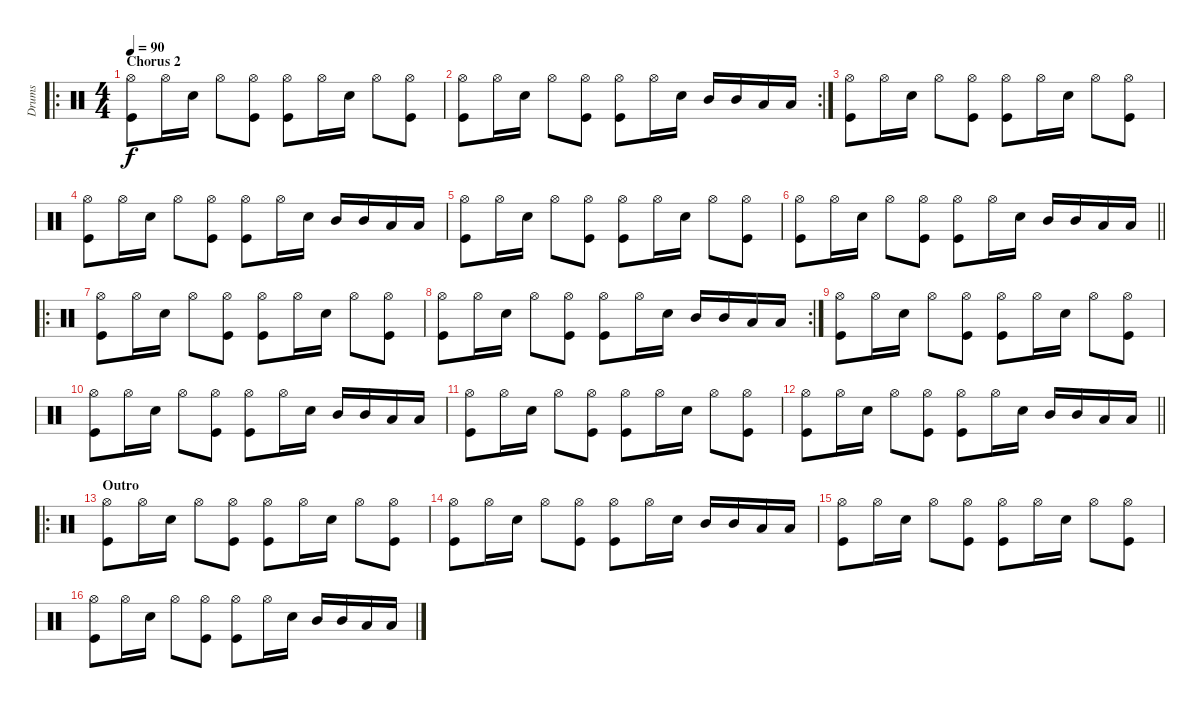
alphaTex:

\track ("Drums" "Drums") {instrument percussion}
\staff {score}
\articulation defaults
\ro
\ts (4 4)
\section ("" "Chorus 2")
\tempo 90
\clef neutral
\ks c
("Hi-Hat (open)" "Kick (hit)").8{dy f} "Hi-Hat (open)".16 "Snare (hit) 2".16 "Hi-Hat (open)".8 ("Hi-Hat (open)" "Kick (hit)").8 ("Hi-Hat (open)" "Kick (hit)").8 "Hi-Hat (open)".16 "Snare (hit) 2".16 "Hi-Hat (open)".8 ("Hi-Hat (open)" "Kick (hit)").8 |
\rc 2
("Hi-Hat (open)" "Kick (hit)").8 "Hi-Hat (open)".16 "Snare (hit) 2".16 "Hi-Hat (open)".8 ("Hi-Hat (open)" "Kick (hit)").8 ("Hi-Hat (open)" "Kick (hit)").8 "Hi-Hat (open)".16 "Snare (hit) 2".16 "Mid Tom (hit)".16 "Mid Tom (hit)".16 "Low Tom (hit)".16 "Low Tom (hit)".16 |
("Hi-Hat (open)" "Kick (hit)").8 "Hi-Hat (open)".16 "Snare (hit) 2".16 "Hi-Hat (open)".8 ("Hi-Hat (open)" "Kick (hit)").8 ("Hi-Hat (open)" "Kick (hit)").8 "Hi-Hat (open)".16 "Snare (hit) 2".16 "Hi-Hat (open)".8 ("Hi-Hat (open)" "Kick (hit)").8 |
("Hi-Hat (open)" "Kick (hit)").8 "Hi-Hat (open)".16 "Snare (hit) 2".16 "Hi-Hat (open)".8 ("Hi-Hat (open)" "Kick (hit)").8 ("Hi-Hat (open)" "Kick (hit)").8 "Hi-Hat (open)".16 "Snare (hit) 2".16 "Mid Tom (hit)".16 "Mid Tom (hit)".16 "Low Tom (hit)".16 "Low Tom (hit)".16 |
("Hi-Hat (open)" "Kick (hit)").8 "Hi-Hat (open)".16 "Snare (hit) 2".16 "Hi-Hat (open)".8 ("Hi-Hat (open)" "Kick (hit)").8 ("Hi-Hat (open)" "Kick (hit)").8 "Hi-Hat (open)".16 "Snare (hit) 2".16 "Hi-Hat (open)".8 ("Hi-Hat (open)" "Kick (hit)").8 |
\barLineRight lightlight
("Hi-Hat (open)" "Kick (hit)").8 "Hi-Hat (open)".16 "Snare (hit) 2".16 "Hi-Hat (open)".8 ("Hi-Hat (open)" "Kick (hit)").8 ("Hi-Hat (open)" "Kick (hit)").8 "Hi-Hat (open)".16 "Snare (hit) 2".16 "Mid Tom (hit)".16 "Mid Tom (hit)".16 "Low Tom (hit)".16 "Low Tom (hit)".16 |
\ro
("Hi-Hat (open)" "Kick (hit)").8 "Hi-Hat (open)".16 "Snare (hit) 2".16 "Hi-Hat (open)".8 ("Hi-Hat (open)" "Kick (hit)").8 ("Hi-Hat (open)" "Kick (hit)").8 "Hi-Hat (open)".16 "Snare (hit) 2".16 "Hi-Hat (open)".8 ("Hi-Hat (open)" "Kick (hit)").8 |
\rc 2
("Hi-Hat (open)" "Kick (hit)").8 "Hi-Hat (open)".16 "Snare (hit) 2".16 "Hi-Hat (open)".8 ("Hi-Hat (open)" "Kick (hit)").8 ("Hi-Hat (open)" "Kick (hit)").8 "Hi-Hat (open)".16 "Snare (hit) 2".16 "Mid Tom (hit)".16 "Mid Tom (hit)".16 "Low Tom (hit)".16 "Low Tom (hit)".16 |
("Hi-Hat (open)" "Kick (hit)").8 "Hi-Hat (open)".16 "Snare (hit) 2".16 "Hi-Hat (open)".8 ("Hi-Hat (open)" "Kick (hit)").8 ("Hi-Hat (open)" "Kick (hit)").8 "Hi-Hat (open)".16 "Snare (hit) 2".16 "Hi-Hat (open)".8 ("Hi-Hat (open)" "Kick (hit)").8 |
("Hi-Hat (open)" "Kick (hit)").8 "Hi-Hat (open)".16 "Snare (hit) 2".16 "Hi-Hat (open)".8 ("Hi-Hat (open)" "Kick (hit)").8 ("Hi-Hat (open)" "Kick (hit)").8 "Hi-Hat (open)".16 "Snare (hit) 2".16 "Mid Tom (hit)".16 "Mid Tom (hit)".16 "Low Tom (hit)".16 "Low Tom (hit)".16 |
("Hi-Hat (open)" "Kick (hit)").8 "Hi-Hat (open)".16 "Snare (hit) 2".16 "Hi-Hat (open)".8 ("Hi-Hat (open)" "Kick (hit)").8 ("Hi-Hat (open)" "Kick (hit)").8 "Hi-Hat (open)".16 "Snare (hit) 2".16 "Hi-Hat (open)".8 ("Hi-Hat (open)" "Kick (hit)").8 |
\barLineRight lightlight
("Hi-Hat (open)" "Kick (hit)").8 "Hi-Hat (open)".16 "Snare (hit) 2".16 "Hi-Hat (open)".8 ("Hi-Hat (open)" "Kick (hit)").8 ("Hi-Hat (open)" "Kick (hit)").8 "Hi-Hat (open)".16 "Snare (hit) 2".16 "Mid Tom (hit)".16 "Mid Tom (hit)".16 "Low Tom (hit)".16 "Low Tom (hit)".16 |
\ro
\section ("" "Outro")
("Hi-Hat (open)" "Kick (hit)").8 "Hi-Hat (open)".16 "Snare (hit) 2".16 "Hi-Hat (open)".8 ("Hi-Hat (open)" "Kick (hit)").8 ("Hi-Hat (open)" "Kick (hit)").8 "Hi-Hat (open)".16 "Snare (hit) 2".16 "Hi-Hat (open)".8 ("Hi-Hat (open)" "Kick (hit)").8 |
("Hi-Hat (open)" "Kick (hit)").8 "Hi-Hat (open)".16 "Snare (hit) 2".16 "Hi-Hat (open)".8 ("Hi-Hat (open)" "Kick (hit)").8 ("Hi-Hat (open)" "Kick (hit)").8 "Hi-Hat (open)".16 "Snare (hit) 2".16 "Mid Tom (hit)".16 "Mid Tom (hit)".16 "Low Tom (hit)".16 "Low Tom (hit)".16 |
("Hi-Hat (open)" "Kick (hit)").8 "Hi-Hat (open)".16 "Snare (hit) 2".16 "Hi-Hat (open)".8 ("Hi-Hat (open)" "Kick (hit)").8 ("Hi-Hat (open)" "Kick (hit)").8 "Hi-Hat (open)".16 "Snare (hit) 2".16 "Hi-Hat (open)".8 ("Hi-Hat (open)" "Kick (hit)").8 |
("Hi-Hat (open)" "Kick (hit)").8 "Hi-Hat (open)".16 "Snare (hit) 2".16 "Hi-Hat (open)".8 ("Hi-Hat (open)" "Kick (hit)").8 ("Hi-Hat (open)" "Kick (hit)").8 "Hi-Hat (open)".16 "Snare (hit) 2".16 "Mid Tom (hit)".16 "Mid Tom (hit)".16 "Low Tom (hit)".16 "Low Tom (hit)".16
